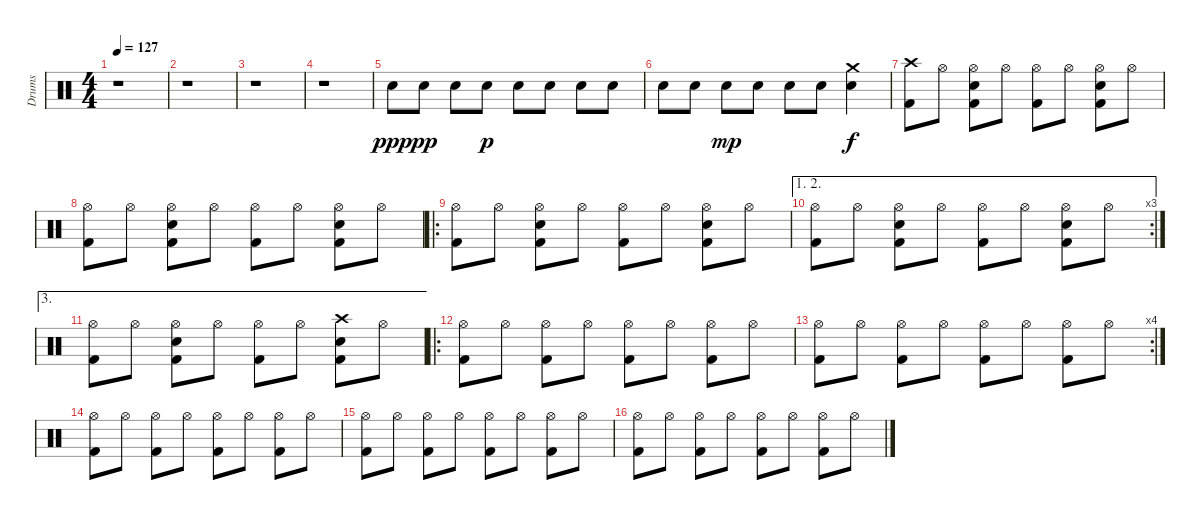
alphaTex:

\track ("Drums" "Drums") {instrument percussion}
\staff {score}
\articulation defaults
\ts (4 4)
\tempo 127
\clef neutral
\ks c
r.1{dy ppp} |
r.1 |
r.1 |
r.1 |
"Snare (hit) 2".8 "Snare (hit) 2".8{dy pp} "Snare (hit) 2".8 "Snare (hit) 2".8{dy p} "Snare (hit) 2".8 "Snare (hit) 2".8 "Snare (hit) 2".8 "Snare (hit) 2".8 |
"Snare (hit) 2".8 "Snare (hit) 2".8 "Snare (hit) 2".8{dy mp} "Snare (hit) 2".8 "Snare (hit) 2".8 "Snare (hit) 2".8 ("Crash medium (hit)" "Snare (hit) 2").4{dy f} |
("Kick (hit) 2" "Crash high (hit)").8 "Hi-Hat (open)".8 ("Kick (hit) 2" "Hi-Hat (open)" "Snare (hit) 2").8 "Hi-Hat (open)".8 ("Kick (hit) 2" "Hi-Hat (open)").8 "Hi-Hat (open)".8 ("Kick (hit) 2" "Hi-Hat (open)" "Snare (hit) 2").8 "Hi-Hat (open)".8 |
("Kick (hit) 2" "Hi-Hat (open)").8 "Hi-Hat (open)".8 ("Kick (hit) 2" "Hi-Hat (open)" "Snare (hit) 2").8 "Hi-Hat (open)".8 ("Kick (hit) 2" "Hi-Hat (open)").8 "Hi-Hat (open)".8 ("Kick (hit) 2" "Hi-Hat (open)" "Snare (hit) 2").8 "Hi-Hat (open)".8 |
\ro
("Kick (hit) 2" "Hi-Hat (open)").8 "Hi-Hat (open)".8 ("Kick (hit) 2" "Hi-Hat (open)" "Snare (hit) 2").8 "Hi-Hat (open)".8 ("Kick (hit) 2" "Hi-Hat (open)").8 "Hi-Hat (open)".8 ("Kick (hit) 2" "Hi-Hat (open)" "Snare (hit) 2").8 "Hi-Hat (open)".8 |
\ae (1 2)
\rc 3
("Kick (hit) 2" "Hi-Hat (open)").8 "Hi-Hat (open)".8 ("Kick (hit) 2" "Hi-Hat (open)" "Snare (hit) 2").8 "Hi-Hat (open)".8 ("Kick (hit) 2" "Hi-Hat (open)").8 "Hi-Hat (open)".8 ("Kick (hit) 2" "Hi-Hat (open)" "Snare (hit) 2").8 "Hi-Hat (open)".8 |
\ae 3
("Kick (hit) 2" "Hi-Hat (open)").8 "Hi-Hat (open)".8 ("Kick (hit) 2" "Hi-Hat (open)" "Snare (hit) 2").8 "Hi-Hat (open)".8 ("Kick (hit) 2" "Hi-Hat (open)").8 "Hi-Hat (open)".8 ("Kick (hit) 2" "Crash high (hit)" "Snare (hit) 2").8 "Hi-Hat (open)".8 |
\ro
("Kick (hit) 2" "Hi-Hat (open)").8 "Hi-Hat (open)".8 ("Kick (hit) 2" "Hi-Hat (open)").8 "Hi-Hat (open)".8 ("Kick (hit) 2" "Hi-Hat (open)").8 "Hi-Hat (open)".8 ("Kick (hit) 2" "Hi-Hat (open)").8 "Hi-Hat (open)".8 |
\rc 4
("Kick (hit) 2" "Hi-Hat (open)").8 "Hi-Hat (open)".8 ("Kick (hit) 2" "Hi-Hat (open)").8 "Hi-Hat (open)".8 ("Kick (hit) 2" "Hi-Hat (open)").8 "Hi-Hat (open)".8 ("Kick (hit) 2" "Hi-Hat (open)").8 "Hi-Hat (open)".8 |
("Kick (hit) 2" "Hi-Hat (open)").8 "Hi-Hat (open)".8 ("Kick (hit) 2" "Hi-Hat (open)").8 "Hi-Hat (open)".8 ("Kick (hit) 2" "Hi-Hat (open)").8 "Hi-Hat (open)".8 ("Kick (hit) 2" "Hi-Hat (open)").8 "Hi-Hat (open)".8 |
("Kick (hit) 2" "Hi-Hat (open)").8 "Hi-Hat (open)".8 ("Kick (hit) 2" "Hi-Hat (open)").8 "Hi-Hat (open)".8 ("Kick (hit) 2" "Hi-Hat (open)").8 "Hi-Hat (open)".8 ("Kick (hit) 2" "Hi-Hat (open)").8 "Hi-Hat (open)".8 |
("Kick (hit) 2" "Hi-Hat (open)").8 "Hi-Hat (open)".8 ("Kick (hit) 2" "Hi-Hat (open)").8 "Hi-Hat (open)".8 ("Kick (hit) 2" "Hi-Hat (open)").8 "Hi-Hat (open)".8 ("Kick (hit) 2" "Hi-Hat (open)").8 "Hi-Hat (open)".8
